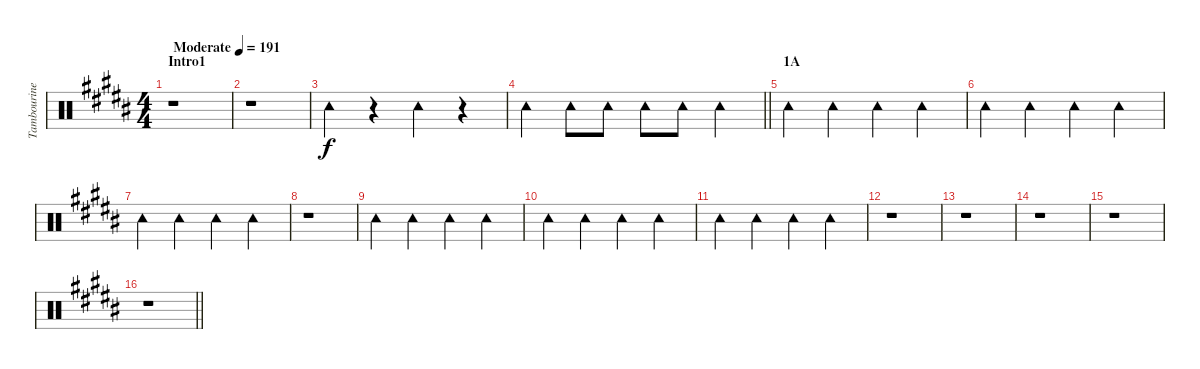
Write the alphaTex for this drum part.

\track ("Tambourine" "Tambourine") {instrument percussion}
\staff {score}
\articulation defaults
\ts (4 4)
\section ("" "Intro1")
\tempo (191 "Moderate")
\clef neutral
\ks b
r.1{dy f} |
r.1 |
"Tambourine (hit)".4 r.4 "Tambourine (hit)".4 r.4 |
\barLineRight lightlight "Tambourine (hit)".4 "Tambourine (hit)".8 "Tambourine (hit)".8 "Tambourine (hit)".8 "Tambourine (hit)".8 "Tambourine (hit)".4
|
\section ("" "1A")
"Tambourine (hit)".4 "Tambourine (hit)".4 "Tambourine (hit)".4 "Tambourine (hit)".4 |
"Tambourine (hit)".4 "Tambourine (hit)".4 "Tambourine (hit)".4 "Tambourine (hit)".4 |
"Tambourine (hit)".4 "Tambourine (hit)".4 "Tambourine (hit)".4 "Tambourine (hit)".4 |
r.1 |
"Tambourine (hit)".4 "Tambourine (hit)".4 "Tambourine (hit)".4 "Tambourine (hit)".4 |
"Tambourine (hit)".4 "Tambourine (hit)".4 "Tambourine (hit)".4 "Tambourine (hit)".4 |
"Tambourine (hit)".4 "Tambourine (hit)".4 "Tambourine (hit)".4 "Tambourine (hit)".4 |
r.1 |
r.1 |
r.1 |
r.1 |
\barLineRight lightlight
r.1
